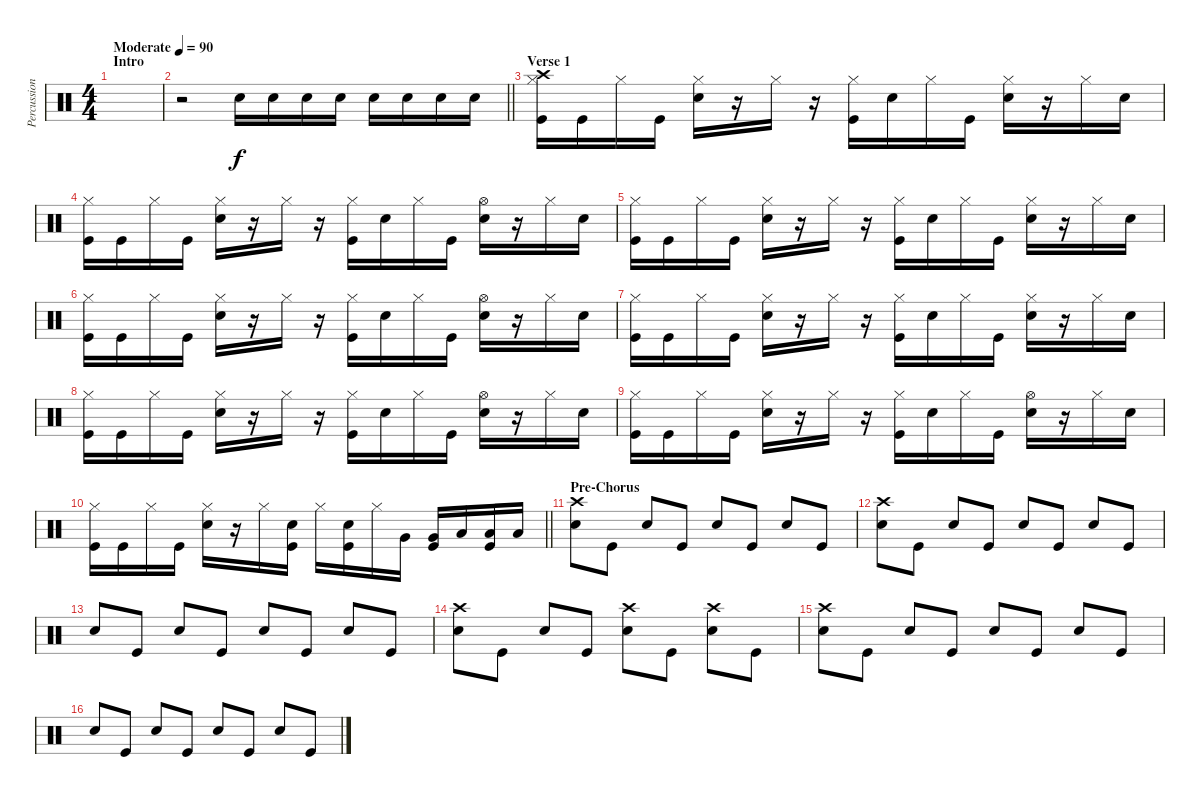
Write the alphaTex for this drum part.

\track ("Percussion" "Percussion") {instrument percussion}
\staff {score}
\articulation defaults
\ts (4 4)
\section ("" "Intro")
\tempo (90 "Moderate")
\clef neutral
\ks c
|
\barLineRight lightlight
r.2 "Snare (hit) 2".16 "Snare (hit) 2".16 "Snare (hit) 2".16 "Snare (hit) 2".16 "Snare (hit) 2".16 "Snare (hit) 2".16 "Snare (hit) 2".16 "Snare (hit) 2".16 |
\section ("" "Verse 1")
("Crash high (hit)" "Hi-Hat (closed)" "Kick (hit)").16 "Kick (hit)".16 "Hi-Hat (closed)".16 "Kick (hit)".16 ("Hi-Hat (closed)" "Snare (hit) 2").16 r.16 "Hi-Hat (closed)".16 r.16 ("Hi-Hat (closed)" "Kick (hit)").16 "Snare (hit) 2".16 "Hi-Hat (closed)".16 "Kick (hit)".16 ("Hi-Hat (closed)" "Snare (hit) 2").16 r.16 "Hi-Hat (closed)".16 "Snare (hit) 2".16 |
("Hi-Hat (closed)" "Kick (hit)").16 "Kick (hit)".16 "Hi-Hat (closed)".16 "Kick (hit)".16 ("Hi-Hat (closed)" "Snare (hit) 2").16 r.16 "Hi-Hat (closed)".16 r.16 ("Hi-Hat (closed)" "Kick (hit)").16 "Snare (hit) 2".16 "Hi-Hat (closed)".16 "Kick (hit)".16 ("Hi-Hat (open)" "Snare (hit) 2").16 r.16 "Hi-Hat (closed)".16 "Snare (hit) 2".16 |
("Hi-Hat (closed)" "Kick (hit)").16 "Kick (hit)".16 "Hi-Hat (closed)".16 "Kick (hit)".16 ("Hi-Hat (closed)" "Snare (hit) 2").16 r.16 "Hi-Hat (closed)".16 r.16 ("Hi-Hat (closed)" "Kick (hit)").16 "Snare (hit) 2".16 "Hi-Hat (closed)".16 "Kick (hit)".16 ("Hi-Hat (closed)" "Snare (hit) 2").16 r.16 "Hi-Hat (closed)".16 "Snare (hit) 2".16 |
("Hi-Hat (closed)" "Kick (hit)").16 "Kick (hit)".16 "Hi-Hat (closed)".16 "Kick (hit)".16 ("Hi-Hat (closed)" "Snare (hit) 2").16 r.16 "Hi-Hat (closed)".16 r.16 ("Hi-Hat (closed)" "Kick (hit)").16 "Snare (hit) 2".16 "Hi-Hat (closed)".16 "Kick (hit)".16 ("Hi-Hat (open)" "Snare (hit) 2").16 r.16 "Hi-Hat (closed)".16 "Snare (hit) 2".16 |
("Hi-Hat (closed)" "Kick (hit)").16 "Kick (hit)".16 "Hi-Hat (closed)".16 "Kick (hit)".16 ("Hi-Hat (closed)" "Snare (hit) 2").16 r.16 "Hi-Hat (closed)".16 r.16 ("Hi-Hat (closed)" "Kick (hit)").16 "Snare (hit) 2".16 "Hi-Hat (closed)".16 "Kick (hit)".16 ("Hi-Hat (closed)" "Snare (hit) 2").16 r.16 "Hi-Hat (closed)".16 "Snare (hit) 2".16 |
("Hi-Hat (closed)" "Kick (hit)").16 "Kick (hit)".16 "Hi-Hat (closed)".16 "Kick (hit)".16 ("Hi-Hat (closed)" "Snare (hit) 2").16 r.16 "Hi-Hat (closed)".16 r.16 ("Hi-Hat (closed)" "Kick (hit)").16 "Snare (hit) 2".16 "Hi-Hat (closed)".16 "Kick (hit)".16 ("Hi-Hat (open)" "Snare (hit) 2").16 r.16 "Hi-Hat (closed)".16 "Snare (hit) 2".16 |
("Hi-Hat (closed)" "Kick (hit)").16 "Kick (hit)".16 "Hi-Hat (closed)".16 "Kick (hit)".16 ("Hi-Hat (closed)" "Snare (hit) 2").16 r.16 "Hi-Hat (closed)".16 r.16 ("Hi-Hat (closed)" "Kick (hit)").16 "Snare (hit) 2".16 "Hi-Hat (closed)".16 "Kick (hit)".16 ("Hi-Hat (open)" "Snare (hit) 2").16 r.16 "Hi-Hat (closed)".16 "Snare (hit) 2".16 |
\barLineRight lightlight
("Hi-Hat (closed)" "Kick (hit)").16 "Kick (hit)".16 "Hi-Hat (closed)".16 "Kick (hit)".16 ("Hi-Hat (closed)" "Snare (hit) 2").16 r.16 "Hi-Hat (closed)".16 ("Snare (hit) 2" "Kick (hit)").16 "Hi-Hat (closed)".16 ("Snare (hit) 2" "Kick (hit)").16 "Hi-Hat (closed)".16 "Very Low Tom (hit)".16 ("Very Low Tom (hit)" "Kick (hit)").16 "Low Floor Tom (hit)".16 ("Low Floor Tom (hit)" "Kick (hit)").16 "Low Floor Tom (hit)".16 |
\section ("" "Pre-Chorus")
("Crash high (hit)" "Snare (hit) 2").8 "Kick (hit)".8 "Snare (hit) 2".8 "Kick (hit)".8 "Snare (hit) 2".8 "Kick (hit)".8 "Snare (hit) 2".8 "Kick (hit)".8 |
("Crash high (hit)" "Snare (hit) 2").8 "Kick (hit)".8 "Snare (hit) 2".8 "Kick (hit)".8 "Snare (hit) 2".8 "Kick (hit)".8 "Snare (hit) 2".8 "Kick (hit)".8 |
"Snare (hit) 2".8 "Kick (hit)".8 "Snare (hit) 2".8 "Kick (hit)".8 "Snare (hit) 2".8 "Kick (hit)".8 "Snare (hit) 2".8 "Kick (hit)".8 |
("Crash high (hit)" "Snare (hit) 2").8 "Kick (hit)".8 "Snare (hit) 2".8 "Kick (hit)".8 ("Crash high (hit)" "Snare (hit) 2").8 "Kick (hit)".8 ("Crash high (hit)" "Snare (hit) 2").8 "Kick (hit)".8 |
("Crash high (hit)" "Snare (hit) 2").8 "Kick (hit)".8 "Snare (hit) 2".8 "Kick (hit)".8 "Snare (hit) 2".8 "Kick (hit)".8 "Snare (hit) 2".8 "Kick (hit)".8 |
"Snare (hit) 2".8 "Kick (hit)".8 "Snare (hit) 2".8 "Kick (hit)".8 "Snare (hit) 2".8 "Kick (hit)".8 "Snare (hit) 2".8 "Kick (hit)".8
